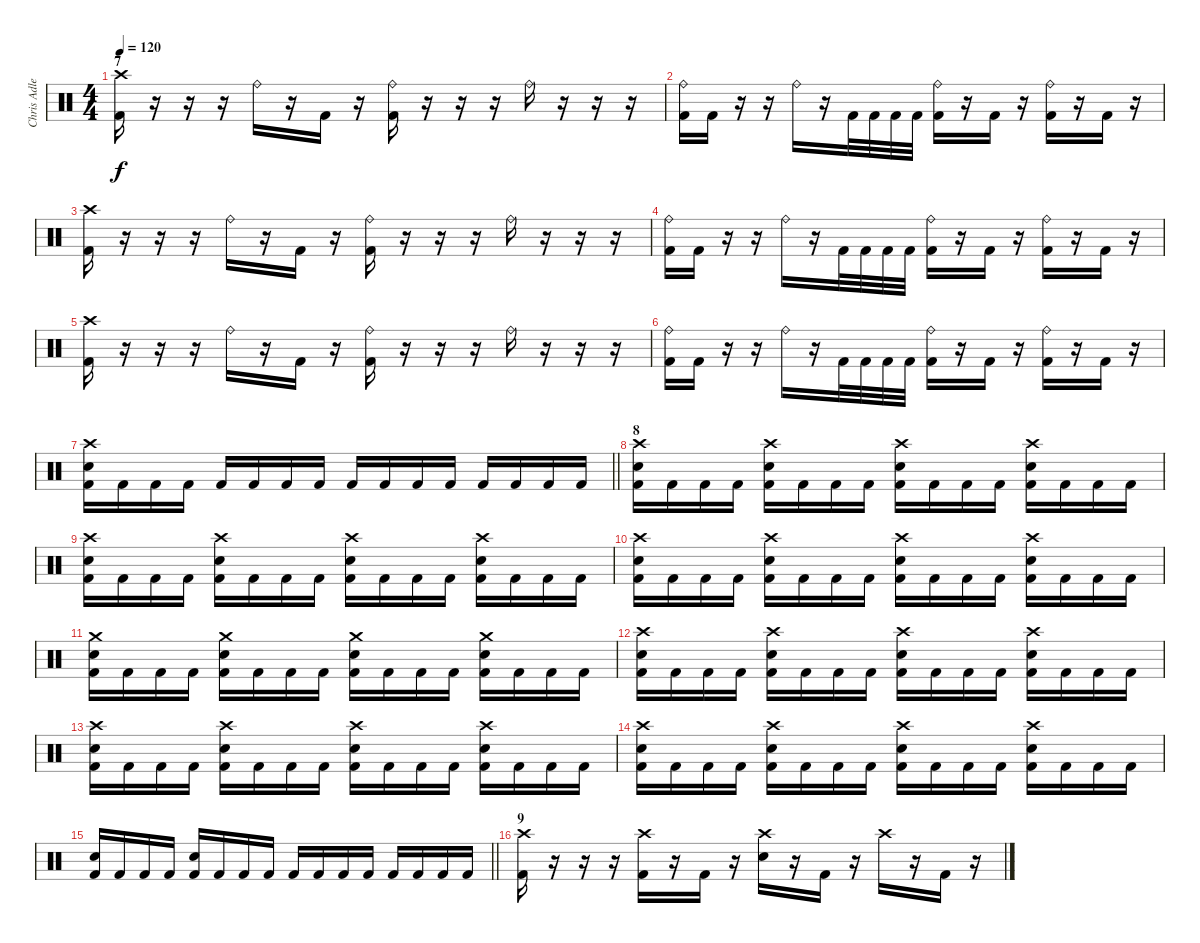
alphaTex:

\track ("Chris Adler" "Chris Adle") {instrument percussion}
\staff {score}
\articulation defaults
\ts (4 4)
\section ("" "7")
\tempo 120
\clef neutral
\ks c
("Crash high (hit)" "Kick (hit) 2").16{dy f} r.16 r.16 r.16 "Ride (bell)".16 r.16 "Kick (hit) 2".16 r.16 ("Ride (bell)" "Kick (hit) 2").16 r.16 r.16 r.16 "Ride (bell)".16 r.16 r.16 r.16 |
("Ride (bell)" "Kick (hit) 2").16 "Kick (hit) 2".16 r.16 r.16 "Ride (bell)".16 r.16 "Kick (hit) 2".32 "Kick (hit) 2".32 "Kick (hit) 2".32 "Kick (hit) 2".32 ("Ride (bell)" "Kick (hit) 2").16 r.16 "Kick (hit) 2".16 r.16 ("Ride (bell)" "Kick (hit) 2").16 r.16 "Kick (hit) 2".16 r.16 |
("Crash high (hit)" "Kick (hit) 2").16 r.16 r.16 r.16 "Ride (bell)".16 r.16 "Kick (hit) 2".16 r.16 ("Ride (bell)" "Kick (hit) 2").16 r.16 r.16 r.16 "Ride (bell)".16 r.16 r.16 r.16 |
("Ride (bell)" "Kick (hit) 2").16 "Kick (hit) 2".16 r.16 r.16 "Ride (bell)".16 r.16 "Kick (hit) 2".32 "Kick (hit) 2".32 "Kick (hit) 2".32 "Kick (hit) 2".32 ("Ride (bell)" "Kick (hit) 2").16 r.16 "Kick (hit) 2".16 r.16 ("Ride (bell)" "Kick (hit) 2").16 r.16 "Kick (hit) 2".16 r.16 |
("Crash high (hit)" "Kick (hit) 2").16 r.16 r.16 r.16 "Ride (bell)".16 r.16 "Kick (hit) 2".16 r.16 ("Ride (bell)" "Kick (hit) 2").16 r.16 r.16 r.16 "Ride (bell)".16 r.16 r.16 r.16 |
("Ride (bell)" "Kick (hit) 2").16 "Kick (hit) 2".16 r.16 r.16 "Ride (bell)".16 r.16 "Kick (hit) 2".32 "Kick (hit) 2".32 "Kick (hit) 2".32 "Kick (hit) 2".32 ("Ride (bell)" "Kick (hit) 2").16 r.16 "Kick (hit) 2".16 r.16 ("Ride (bell)" "Kick (hit) 2").16 r.16 "Kick (hit) 2".16 r.16 |
\barLineRight lightlight
("Crash high (hit)" "Electric Snare (hit)" "Kick (hit) 2").16 "Kick (hit) 2".16 "Kick (hit) 2".16 "Kick (hit) 2".16 "Kick (hit) 2".16 "Kick (hit) 2".16 "Kick (hit) 2".16 "Kick (hit) 2".16 "Kick (hit) 2".16 "Kick (hit) 2".16 "Kick (hit) 2".16 "Kick (hit) 2".16 "Kick (hit) 2".16 "Kick (hit) 2".16 "Kick (hit) 2".16 "Kick (hit) 2".16 |
\section ("" "8")
("Crash high (hit)" "Electric Snare (hit)" "Kick (hit) 2").16 "Kick (hit) 2".16 "Kick (hit) 2".16 "Kick (hit) 2".16 ("Crash high (hit)" "Electric Snare (hit)" "Kick (hit) 2").16 "Kick (hit) 2".16 "Kick (hit) 2".16 "Kick (hit) 2".16 ("Crash high (hit)" "Electric Snare (hit)" "Kick (hit) 2").16 "Kick (hit) 2".16 "Kick (hit) 2".16 "Kick (hit) 2".16 ("Crash high (hit)" "Electric Snare (hit)" "Kick (hit) 2").16 "Kick (hit) 2".16 "Kick (hit) 2".16 "Kick (hit) 2".16 |
("Crash high (hit)" "Electric Snare (hit)" "Kick (hit) 2").16 "Kick (hit) 2".16 "Kick (hit) 2".16 "Kick (hit) 2".16 ("Crash high (hit)" "Electric Snare (hit)" "Kick (hit) 2").16 "Kick (hit) 2".16 "Kick (hit) 2".16 "Kick (hit) 2".16 ("Crash high (hit)" "Electric Snare (hit)" "Kick (hit) 2").16 "Kick (hit) 2".16 "Kick (hit) 2".16 "Kick (hit) 2".16 ("Crash high (hit)" "Electric Snare (hit)" "Kick (hit) 2").16 "Kick (hit) 2".16 "Kick (hit) 2".16 "Kick (hit) 2".16 |
("Crash high (hit)" "Electric Snare (hit)" "Kick (hit) 2").16 "Kick (hit) 2".16 "Kick (hit) 2".16 "Kick (hit) 2".16 ("Crash high (hit)" "Electric Snare (hit)" "Kick (hit) 2").16 "Kick (hit) 2".16 "Kick (hit) 2".16 "Kick (hit) 2".16 ("Crash high (hit)" "Electric Snare (hit)" "Kick (hit) 2").16 "Kick (hit) 2".16 "Kick (hit) 2".16 "Kick (hit) 2".16 ("Crash high (hit)" "Electric Snare (hit)" "Kick (hit) 2").16 "Kick (hit) 2".16 "Kick (hit) 2".16 "Kick (hit) 2".16 |
("Crash medium (hit)" "Electric Snare (hit)" "Kick (hit) 2").16 "Kick (hit) 2".16 "Kick (hit) 2".16 "Kick (hit) 2".16 ("Crash medium (hit)" "Electric Snare (hit)" "Kick (hit) 2").16 "Kick (hit) 2".16 "Kick (hit) 2".16 "Kick (hit) 2".16 ("Crash medium (hit)" "Electric Snare (hit)" "Kick (hit) 2").16 "Kick (hit) 2".16 "Kick (hit) 2".16 "Kick (hit) 2".16 ("Crash medium (hit)" "Electric Snare (hit)" "Kick (hit) 2").16 "Kick (hit) 2".16 "Kick (hit) 2".16 "Kick (hit) 2".16 |
("Crash high (hit)" "Electric Snare (hit)" "Kick (hit) 2").16 "Kick (hit) 2".16 "Kick (hit) 2".16 "Kick (hit) 2".16 ("Crash high (hit)" "Electric Snare (hit)" "Kick (hit) 2").16 "Kick (hit) 2".16 "Kick (hit) 2".16 "Kick (hit) 2".16 ("Crash high (hit)" "Electric Snare (hit)" "Kick (hit) 2").16 "Kick (hit) 2".16 "Kick (hit) 2".16 "Kick (hit) 2".16 ("Crash high (hit)" "Electric Snare (hit)" "Kick (hit) 2").16 "Kick (hit) 2".16 "Kick (hit) 2".16 "Kick (hit) 2".16 |
("Crash high (hit)" "Electric Snare (hit)" "Kick (hit) 2").16 "Kick (hit) 2".16 "Kick (hit) 2".16 "Kick (hit) 2".16 ("Crash high (hit)" "Electric Snare (hit)" "Kick (hit) 2").16 "Kick (hit) 2".16 "Kick (hit) 2".16 "Kick (hit) 2".16 ("Crash high (hit)" "Electric Snare (hit)" "Kick (hit) 2").16 "Kick (hit) 2".16 "Kick (hit) 2".16 "Kick (hit) 2".16 ("Crash high (hit)" "Electric Snare (hit)" "Kick (hit) 2").16 "Kick (hit) 2".16 "Kick (hit) 2".16 "Kick (hit) 2".16 |
("Crash high (hit)" "Electric Snare (hit)" "Kick (hit) 2").16 "Kick (hit) 2".16 "Kick (hit) 2".16 "Kick (hit) 2".16 ("Crash high (hit)" "Electric Snare (hit)" "Kick (hit) 2").16 "Kick (hit) 2".16 "Kick (hit) 2".16 "Kick (hit) 2".16 ("Crash high (hit)" "Electric Snare (hit)" "Kick (hit) 2").16 "Kick (hit) 2".16 "Kick (hit) 2".16 "Kick (hit) 2".16 ("Crash high (hit)" "Electric Snare (hit)" "Kick (hit) 2").16 "Kick (hit) 2".16 "Kick (hit) 2".16 "Kick (hit) 2".16 |
\barLineRight lightlight
("Electric Snare (hit)" "Kick (hit) 2").16 "Kick (hit) 2".16 "Kick (hit) 2".16 "Kick (hit) 2".16 ("Electric Snare (hit)" "Kick (hit) 2").16 "Kick (hit) 2".16 "Kick (hit) 2".16 "Kick (hit) 2".16 "Kick (hit) 2".16 "Kick (hit) 2".16 "Kick (hit) 2".16 "Kick (hit) 2".16 "Kick (hit) 2".16 "Kick (hit) 2".16 "Kick (hit) 2".16 "Kick (hit) 2".16 |
\section ("" "9")
("Crash high (hit)" "Kick (hit) 2").16 r.16 r.16 r.16 ("Crash high (hit)" "Kick (hit) 2").16 r.16 "Kick (hit) 2".16 r.16 ("Crash high (hit)" "Electric Snare (hit)").16 r.16 "Kick (hit) 2".16 r.16 "Crash high (hit)".16 r.16 "Kick (hit) 2".16 r.16
